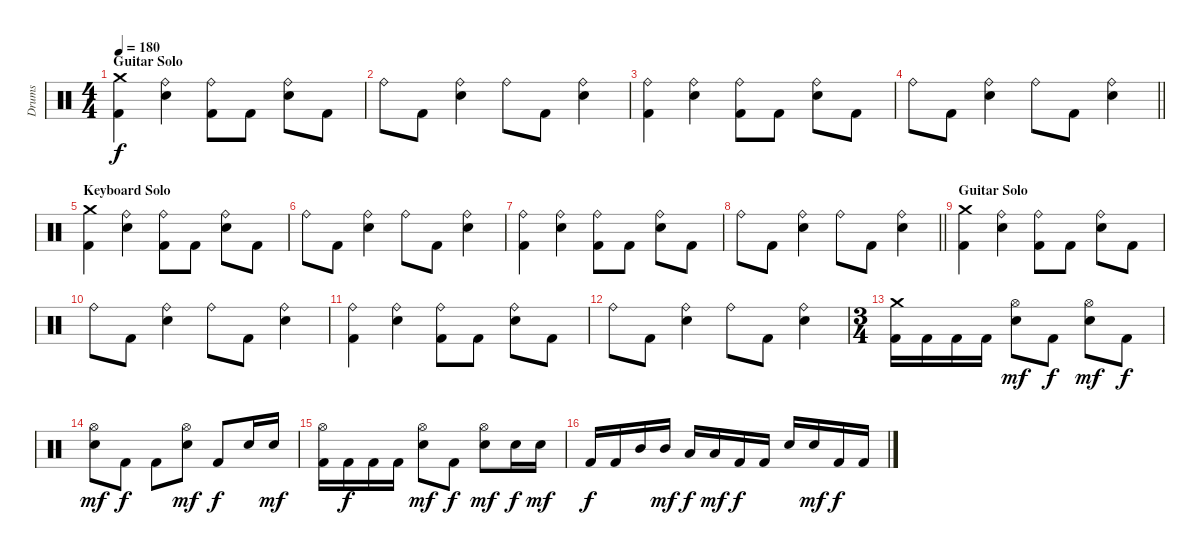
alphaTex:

\track ("Drums" "Drums") {instrument percussion}
\staff {score}
\articulation defaults
\ts (4 4)
\section ("" "Guitar Solo")
\tempo 180
\clef neutral
\ks c
("Kick (hit) 2" "Crash medium (hit)").4{dy f} ("Ride (bell)" "Electric Snare (hit)").4 ("Kick (hit) 2" "Ride (bell)").8 "Kick (hit) 2".8 ("Ride (bell)" "Electric Snare (hit)").8 "Kick (hit) 2".8 |
"Ride (bell)".8 "Kick (hit) 2".8 ("Ride (bell)" "Electric Snare (hit)").4 "Ride (bell)".8 "Kick (hit) 2".8 ("Ride (bell)" "Electric Snare (hit)").4 |
("Kick (hit) 2" "Ride (bell)").4 ("Ride (bell)" "Electric Snare (hit)").4 ("Kick (hit) 2" "Ride (bell)").8 "Kick (hit) 2".8 ("Ride (bell)" "Electric Snare (hit)").8 "Kick (hit) 2".8 |
\barLineRight lightlight "Ride (bell)".8 "Kick (hit) 2".8
("Ride (bell)" "Electric Snare (hit)").4 "Ride (bell)".8 "Kick (hit) 2".8 ("Ride (bell)" "Electric Snare (hit)").4 |
\section ("" "Keyboard Solo")
("Kick (hit) 2" "Crash medium (hit)").4 ("Ride (bell)" "Electric Snare (hit)").4 ("Kick (hit) 2" "Ride (bell)").8 "Kick (hit) 2".8 ("Ride (bell)" "Electric Snare (hit)").8 "Kick (hit) 2".8 |
"Ride (bell)".8 "Kick (hit) 2".8 ("Ride (bell)" "Electric Snare (hit)").4 "Ride (bell)".8 "Kick (hit) 2".8 ("Ride (bell)" "Electric Snare (hit)").4 |
("Kick (hit) 2" "Ride (bell)").4 ("Ride (bell)" "Electric Snare (hit)").4 ("Kick (hit) 2" "Ride (bell)").8 "Kick (hit) 2".8 ("Ride (bell)" "Electric Snare (hit)").8 "Kick (hit) 2".8 |
\barLineRight lightlight "Ride (bell)".8 "Kick (hit) 2".8
("Ride (bell)" "Electric Snare (hit)").4 "Ride (bell)".8 "Kick (hit) 2".8 ("Ride (bell)" "Electric Snare (hit)").4 |
\section ("" "Guitar Solo")
("Kick (hit) 2" "Crash medium (hit)").4 ("Ride (bell)" "Electric Snare (hit)").4 ("Kick (hit) 2" "Ride (bell)").8 "Kick (hit) 2".8 ("Ride (bell)" "Electric Snare (hit)").8 "Kick (hit) 2".8 |
"Ride (bell)".8 "Kick (hit) 2".8 ("Ride (bell)" "Electric Snare (hit)").4 "Ride (bell)".8 "Kick (hit) 2".8 ("Ride (bell)" "Electric Snare (hit)").4 |
("Kick (hit) 2" "Ride (bell)").4 ("Ride (bell)" "Electric Snare (hit)").4 ("Kick (hit) 2" "Ride (bell)").8 "Kick (hit) 2".8 ("Ride (bell)" "Electric Snare (hit)").8 "Kick (hit) 2".8 |
"Ride (bell)".8 "Kick (hit) 2".8 ("Ride (bell)" "Electric Snare (hit)").4 "Ride (bell)".8 "Kick (hit) 2".8 ("Ride (bell)" "Electric Snare (hit)").4 |
\ts (3 4)
("Kick (hit) 2" "Crash medium (hit)").16 "Kick (hit) 2".16 "Kick (hit) 2".16 "Kick (hit) 2".16 ("Hi-Hat (open)" "Electric Snare (hit)").8{dy mf} "Kick (hit) 2".8{dy f} ("Hi-Hat (open)" "Electric Snare (hit)").8{dy mf} "Kick (hit) 2".8{dy f} |
("Hi-Hat (open)" "Electric Snare (hit)").8{dy mf} "Kick (hit) 2".8{dy f} "Kick (hit) 2".8 ("Hi-Hat (open)" "Electric Snare (hit)").8{dy mf} "Kick (hit) 2".8{dy f} "Electric Snare (hit)".16 "Electric Snare (hit)".16{dy mf} |
("Kick (hit) 2" "Hi-Hat (open)").16 "Kick (hit) 2".16{dy f} "Kick (hit) 2".16 "Kick (hit) 2".16 ("Hi-Hat (open)" "Electric Snare (hit)").8{dy mf} "Kick (hit) 2".8{dy f} ("Hi-Hat (open)" "Electric Snare (hit)").8{dy mf} "Electric Snare (hit)".16{dy f} "Electric Snare (hit)".16{dy mf} |
"Kick (hit) 2".16{dy f} "Kick (hit) 2".16 "Mid Tom (hit)".16 "Mid Tom (hit)".16{dy mf} "Low Tom (hit)".16{dy f} "Low Tom (hit)".16{dy mf} "Kick (hit) 2".16{dy f} "Kick (hit) 2".16 "Electric Snare (hit)".16 "Electric Snare (hit)".16{dy mf} "Kick (hit) 2".16{dy f} "Kick (hit) 2".16
